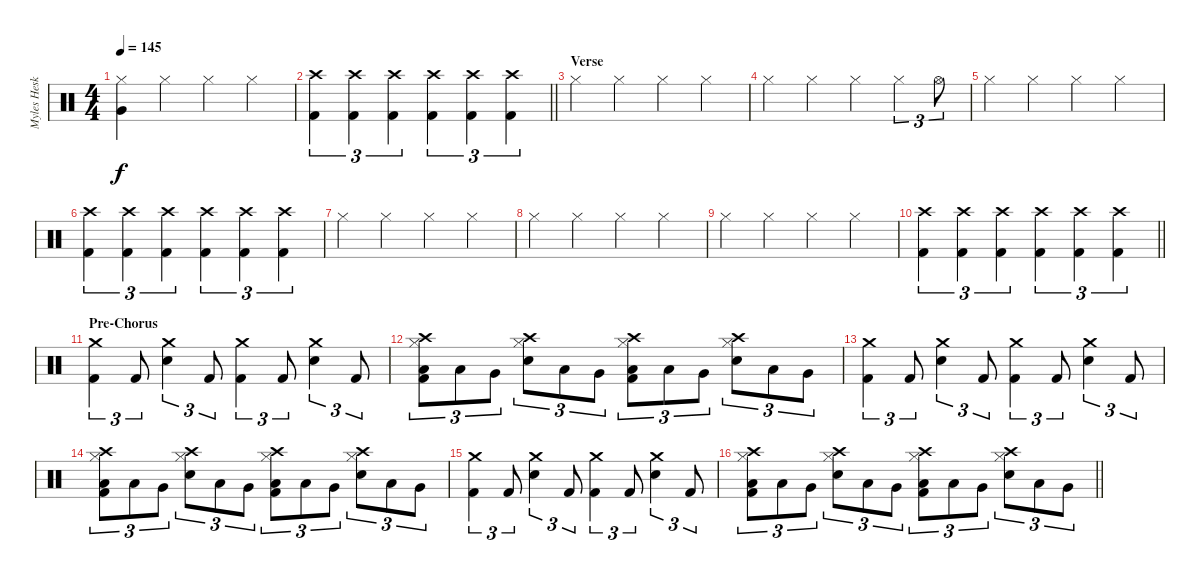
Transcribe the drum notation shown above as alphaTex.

\track ("Myles Heskett" "Myles Hesk") {instrument percussion}
\staff {score}
\articulation defaults
\ts (4 4)
\tempo 145
\clef neutral
\ks c
("Hi-Hat (closed)" "Very Low Tom (hit)").4{dy f} "Hi-Hat (closed)".4 "Hi-Hat (closed)".4 "Hi-Hat (closed)".4 |
\barLineRight lightlight
("Crash high (hit)" "Kick (hit) 2").4{tu (3 2)} ("Crash high (hit)" "Kick (hit) 2").4{tu (3 2)} ("Crash high (hit)" "Kick (hit) 2").4{tu (3 2)} ("Crash high (hit)" "Kick (hit) 2").4{tu (3 2)} ("Crash high (hit)" "Kick (hit) 2").4{tu (3 2)} ("Crash high (hit)" "Kick (hit) 2").4{tu (3 2)} |
\section ("" "Verse")
"Hi-Hat (closed)".4 "Hi-Hat (closed)".4 "Hi-Hat (closed)".4 "Hi-Hat (closed)".4 |
"Hi-Hat (closed)".4 "Hi-Hat (closed)".4 "Hi-Hat (closed)".4 "Hi-Hat (closed)".4{tu (3 2)} "Hi-Hat (open)".8{tu (3 2)} |
"Hi-Hat (closed)".4 "Hi-Hat (closed)".4 "Hi-Hat (closed)".4 "Hi-Hat (closed)".4 |
("Crash high (hit)" "Kick (hit) 2").4{tu (3 2)} ("Crash high (hit)" "Kick (hit) 2").4{tu (3 2)} ("Crash high (hit)" "Kick (hit) 2").4{tu (3 2)} ("Crash high (hit)" "Kick (hit) 2").4{tu (3 2)} ("Crash high (hit)" "Kick (hit) 2").4{tu (3 2)} ("Crash high (hit)" "Kick (hit) 2").4{tu (3 2)} |
"Hi-Hat (closed)".4 "Hi-Hat (closed)".4 "Hi-Hat (closed)".4 "Hi-Hat (closed)".4 |
"Hi-Hat (closed)".4 "Hi-Hat (closed)".4 "Hi-Hat (closed)".4 "Hi-Hat (closed)".4 |
"Hi-Hat (closed)".4 "Hi-Hat (closed)".4 "Hi-Hat (closed)".4 "Hi-Hat (closed)".4 |
\barLineRight lightlight
("Crash high (hit)" "Kick (hit) 2").4{tu (3 2)} ("Crash high (hit)" "Kick (hit) 2").4{tu (3 2)} ("Crash high (hit)" "Kick (hit) 2").4{tu (3 2)} ("Crash high (hit)" "Kick (hit) 2").4{tu (3 2)} ("Crash high (hit)" "Kick (hit) 2").4{tu (3 2)} ("Crash high (hit)" "Kick (hit) 2").4{tu (3 2)} |
\section ("" "Pre-Chorus")
("Crash medium (hit)" "Kick (hit) 2").4{tu (3 2)} "Kick (hit) 2".8{tu (3 2)} ("Crash medium (hit)" "Snare (hit) 2").4{tu (3 2)} "Kick (hit) 2".8{tu (3 2)} ("Crash medium (hit)" "Kick (hit) 2").4{tu (3 2)} "Kick (hit) 2".8{tu (3 2)} ("Crash medium (hit)" "Snare (hit) 2").4{tu (3 2)} "Kick (hit) 2".8{tu (3 2)} |
("Crash high (hit)" "Hi-Hat (closed)" "Low Tom (hit)" "Kick (hit) 2").8{tu (3 2)} "Low Tom (hit)".8{tu (3 2)} "Very Low Tom (hit)".8{tu (3 2)} ("Crash high (hit)" "Hi-Hat (closed)" "Snare (hit) 2").8{tu (3 2)} "Low Tom (hit)".8{tu (3 2)} "Very Low Tom (hit)".8{tu (3 2)} ("Crash high (hit)" "Hi-Hat (closed)" "Low Tom (hit)" "Kick (hit) 2").8{tu (3 2)} "Low Tom (hit)".8{tu (3 2)} "Very Low Tom (hit)".8{tu (3 2)} ("Crash high (hit)" "Hi-Hat (closed)" "Snare (hit) 2").8{tu (3 2)} "Low Tom (hit)".8{tu (3 2)} "Very Low Tom (hit)".8{tu (3 2)} |
("Crash medium (hit)" "Kick (hit) 2").4{tu (3 2)} "Kick (hit) 2".8{tu (3 2)} ("Crash medium (hit)" "Snare (hit) 2").4{tu (3 2)} "Kick (hit) 2".8{tu (3 2)} ("Crash medium (hit)" "Kick (hit) 2").4{tu (3 2)} "Kick (hit) 2".8{tu (3 2)} ("Crash medium (hit)" "Snare (hit) 2").4{tu (3 2)} "Kick (hit) 2".8{tu (3 2)} |
("Crash high (hit)" "Hi-Hat (closed)" "Low Tom (hit)" "Kick (hit) 2").8{tu (3 2)} "Low Tom (hit)".8{tu (3 2)} "Very Low Tom (hit)".8{tu (3 2)} ("Crash high (hit)" "Hi-Hat (closed)" "Snare (hit) 2").8{tu (3 2)} "Low Tom (hit)".8{tu (3 2)} "Very Low Tom (hit)".8{tu (3 2)} ("Crash high (hit)" "Hi-Hat (closed)" "Low Tom (hit)" "Kick (hit) 2").8{tu (3 2)} "Low Tom (hit)".8{tu (3 2)} "Very Low Tom (hit)".8{tu (3 2)} ("Crash high (hit)" "Hi-Hat (closed)" "Snare (hit) 2").8{tu (3 2)} "Low Tom (hit)".8{tu (3 2)} "Very Low Tom (hit)".8{tu (3 2)} |
("Crash medium (hit)" "Kick (hit) 2").4{tu (3 2)} "Kick (hit) 2".8{tu (3 2)} ("Crash medium (hit)" "Snare (hit) 2").4{tu (3 2)} "Kick (hit) 2".8{tu (3 2)} ("Crash medium (hit)" "Kick (hit) 2").4{tu (3 2)} "Kick (hit) 2".8{tu (3 2)} ("Crash medium (hit)" "Snare (hit) 2").4{tu (3 2)} "Kick (hit) 2".8{tu (3 2)} |
\barLineRight lightlight
("Crash high (hit)" "Hi-Hat (closed)" "Low Tom (hit)" "Kick (hit) 2").8{tu (3 2)} "Low Tom (hit)".8{tu (3 2)} "Very Low Tom (hit)".8{tu (3 2)} ("Crash high (hit)" "Hi-Hat (closed)" "Snare (hit) 2").8{tu (3 2)} "Low Tom (hit)".8{tu (3 2)} "Very Low Tom (hit)".8{tu (3 2)} ("Crash high (hit)" "Hi-Hat (closed)" "Low Tom (hit)" "Kick (hit) 2").8{tu (3 2)} "Low Tom (hit)".8{tu (3 2)} "Very Low Tom (hit)".8{tu (3 2)} ("Crash high (hit)" "Hi-Hat (closed)" "Snare (hit) 2").8{tu (3 2)} "Low Tom (hit)".8{tu (3 2)} "Very Low Tom (hit)".8{tu (3 2)}
